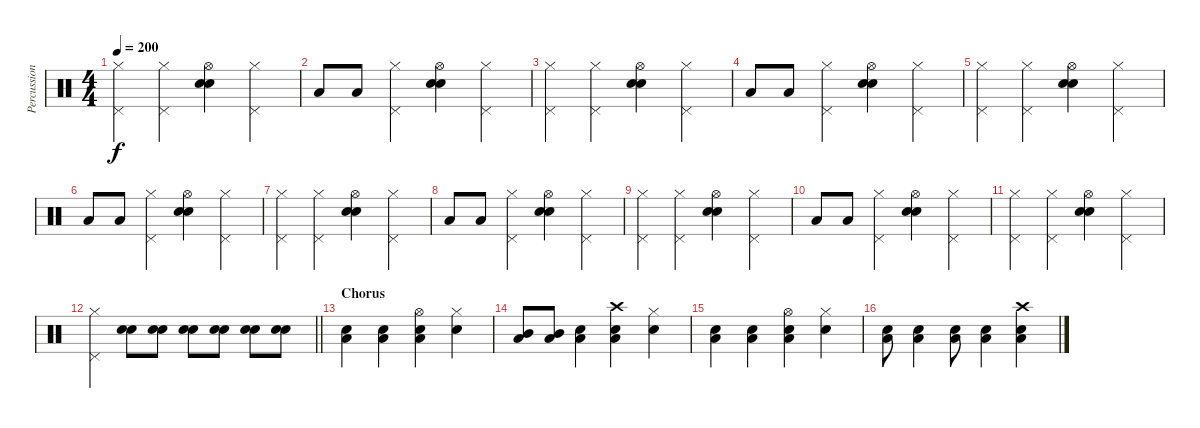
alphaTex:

\track ("Percussion" "Percussion") {instrument percussion}
\staff {score}
\articulation defaults
\ts (4 4)
\tempo 200
\clef neutral
\ks c
("Hi-Hat (closed)" "Pedal Hi-Hat (hit)").4{dy f} ("Hi-Hat (closed)" "Pedal Hi-Hat (hit)").4 ("Snare (hit) 2" "Electric Snare (hit)" "Hi-Hat (open)").4 ("Hi-Hat (closed)" "Pedal Hi-Hat (hit)").4 |
"Low Tom (hit)".8 "Low Tom (hit)".8 ("Hi-Hat (closed)" "Pedal Hi-Hat (hit)").4 ("Snare (hit) 2" "Electric Snare (hit)" "Hi-Hat (open)").4 ("Hi-Hat (closed)" "Pedal Hi-Hat (hit)").4 |
("Hi-Hat (closed)" "Pedal Hi-Hat (hit)").4 ("Hi-Hat (closed)" "Pedal Hi-Hat (hit)").4 ("Snare (hit) 2" "Electric Snare (hit)" "Hi-Hat (open)").4 ("Hi-Hat (closed)" "Pedal Hi-Hat (hit)").4 |
"Low Tom (hit)".8 "Low Tom (hit)".8 ("Hi-Hat (closed)" "Pedal Hi-Hat (hit)").4 ("Snare (hit) 2" "Electric Snare (hit)" "Hi-Hat (open)").4 ("Hi-Hat (closed)" "Pedal Hi-Hat (hit)").4 |
("Hi-Hat (closed)" "Pedal Hi-Hat (hit)").4 ("Hi-Hat (closed)" "Pedal Hi-Hat (hit)").4 ("Snare (hit) 2" "Electric Snare (hit)" "Hi-Hat (open)").4 ("Hi-Hat (closed)" "Pedal Hi-Hat (hit)").4 |
"Low Tom (hit)".8 "Low Tom (hit)".8 ("Hi-Hat (closed)" "Pedal Hi-Hat (hit)").4 ("Snare (hit) 2" "Electric Snare (hit)" "Hi-Hat (open)").4 ("Hi-Hat (closed)" "Pedal Hi-Hat (hit)").4 |
("Hi-Hat (closed)" "Pedal Hi-Hat (hit)").4 ("Hi-Hat (closed)" "Pedal Hi-Hat (hit)").4 ("Snare (hit) 2" "Electric Snare (hit)" "Hi-Hat (open)").4 ("Hi-Hat (closed)" "Pedal Hi-Hat (hit)").4 |
"Low Tom (hit)".8 "Low Tom (hit)".8 ("Hi-Hat (closed)" "Pedal Hi-Hat (hit)").4 ("Snare (hit) 2" "Electric Snare (hit)" "Hi-Hat (open)").4 ("Hi-Hat (closed)" "Pedal Hi-Hat (hit)").4 |
("Hi-Hat (closed)" "Pedal Hi-Hat (hit)").4 ("Hi-Hat (closed)" "Pedal Hi-Hat (hit)").4 ("Snare (hit) 2" "Electric Snare (hit)" "Hi-Hat (open)").4 ("Hi-Hat (closed)" "Pedal Hi-Hat (hit)").4 |
"Low Tom (hit)".8 "Low Tom (hit)".8 ("Hi-Hat (closed)" "Pedal Hi-Hat (hit)").4 ("Snare (hit) 2" "Electric Snare (hit)" "Hi-Hat (open)").4 ("Hi-Hat (closed)" "Pedal Hi-Hat (hit)").4 |
("Hi-Hat (closed)" "Pedal Hi-Hat (hit)").4 ("Hi-Hat (closed)" "Pedal Hi-Hat (hit)").4 ("Snare (hit) 2" "Electric Snare (hit)" "Hi-Hat (open)").4 ("Hi-Hat (closed)" "Pedal Hi-Hat (hit)").4 |
\barLineRight lightlight
("Hi-Hat (closed)" "Pedal Hi-Hat (hit)").4 ("Snare (hit) 2" "Electric Snare (hit)").8 ("Snare (hit) 2" "Electric Snare (hit)").8 ("Snare (hit) 2" "Electric Snare (hit)").8 ("Snare (hit) 2" "Electric Snare (hit)").8 ("Snare (hit) 2" "Electric Snare (hit)").8 ("Snare (hit) 2" "Electric Snare (hit)").8 |
\section ("" "Chorus")
("Electric Snare (hit)" "Low Tom (hit)").4 ("Electric Snare (hit)" "Low Tom (hit)").4 ("Snare (hit) 2" "Low Tom (hit)" "Hi-Hat (open)").4 ("Electric Snare (hit)" "Hi-Hat (closed)").4 |
("Mid Tom (hit)" "Low Tom (hit)").8 ("Mid Tom (hit)" "Low Tom (hit)").8 ("Snare (hit) 2" "Low Tom (hit)").4 ("Electric Snare (hit)" "Low Tom (hit)" "Crash high (hit)").4 ("Electric Snare (hit)" "Hi-Hat (closed)").4 |
("Electric Snare (hit)" "Low Tom (hit)").4 ("Electric Snare (hit)" "Low Tom (hit)").4 ("Snare (hit) 2" "Low Tom (hit)" "Hi-Hat (open)").4 ("Electric Snare (hit)" "Hi-Hat (closed)").4 |
("Snare (hit) 2" "Low Tom (hit)").8 ("Snare (hit) 2" "Low Tom (hit)").4 ("Snare (hit) 2" "Low Tom (hit)").8 ("Snare (hit) 2" "Low Tom (hit)").4 ("Electric Snare (hit)" "Low Tom (hit)" "Crash high (hit)").4
